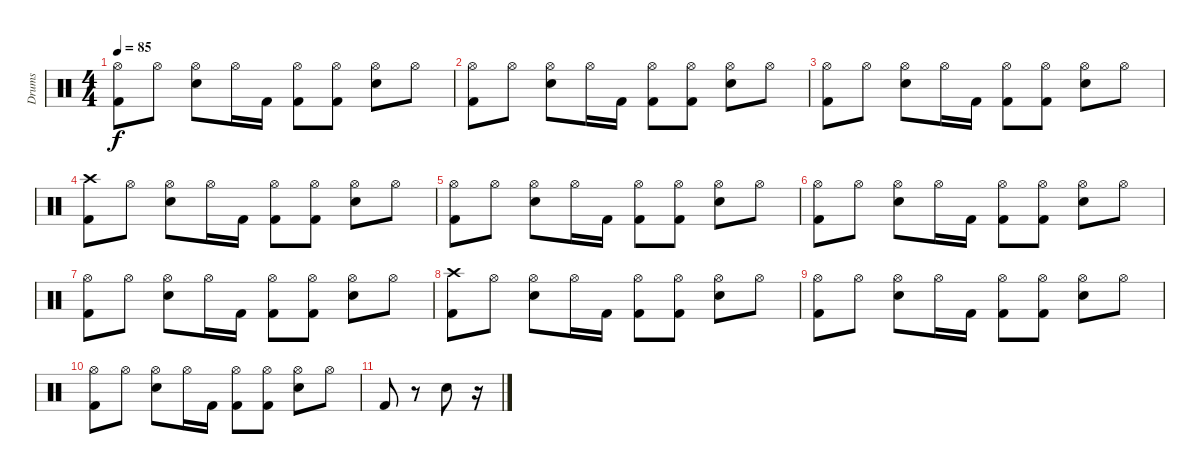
\track ("Drums" "Drums") {instrument percussion}
\staff {score}
\articulation defaults
\ts (4 4)
\tempo 85
\clef neutral
\ks c
("Hi-Hat (open)" "Kick (hit) 2").8{dy f} "Hi-Hat (open)".8 ("Hi-Hat (open)" "Snare (hit) 2").8 "Hi-Hat (open)".16 "Kick (hit) 2".16 ("Hi-Hat (open)" "Kick (hit) 2").8 ("Hi-Hat (open)" "Kick (hit) 2").8 ("Hi-Hat (open)" "Snare (hit) 2").8 "Hi-Hat (open)".8 |
("Hi-Hat (open)" "Kick (hit) 2").8 "Hi-Hat (open)".8 ("Hi-Hat (open)" "Snare (hit) 2").8 "Hi-Hat (open)".16 "Kick (hit) 2".16 ("Hi-Hat (open)" "Kick (hit) 2").8 ("Hi-Hat (open)" "Kick (hit) 2").8 ("Hi-Hat (open)" "Snare (hit) 2").8 "Hi-Hat (open)".8 |
("Hi-Hat (open)" "Kick (hit) 2").8 "Hi-Hat (open)".8 ("Hi-Hat (open)" "Snare (hit) 2").8 "Hi-Hat (open)".16 "Kick (hit) 2".16 ("Hi-Hat (open)" "Kick (hit) 2").8 ("Hi-Hat (open)" "Kick (hit) 2").8 ("Hi-Hat (open)" "Snare (hit) 2").8 "Hi-Hat (open)".8 |
("Crash high (hit)" "Kick (hit) 2").8 "Hi-Hat (open)".8 ("Hi-Hat (open)" "Snare (hit) 2").8 "Hi-Hat (open)".16 "Kick (hit) 2".16 ("Hi-Hat (open)" "Kick (hit) 2").8 ("Hi-Hat (open)" "Kick (hit) 2").8 ("Hi-Hat (open)" "Snare (hit) 2").8 "Hi-Hat (open)".8 |
("Hi-Hat (open)" "Kick (hit) 2").8 "Hi-Hat (open)".8 ("Hi-Hat (open)" "Snare (hit) 2").8 "Hi-Hat (open)".16 "Kick (hit) 2".16 ("Hi-Hat (open)" "Kick (hit) 2").8 ("Hi-Hat (open)" "Kick (hit) 2").8 ("Hi-Hat (open)" "Snare (hit) 2").8 "Hi-Hat (open)".8 |
("Hi-Hat (open)" "Kick (hit) 2").8 "Hi-Hat (open)".8 ("Hi-Hat (open)" "Snare (hit) 2").8 "Hi-Hat (open)".16 "Kick (hit) 2".16 ("Hi-Hat (open)" "Kick (hit) 2").8 ("Hi-Hat (open)" "Kick (hit) 2").8 ("Hi-Hat (open)" "Snare (hit) 2").8 "Hi-Hat (open)".8 |
("Hi-Hat (open)" "Kick (hit) 2").8 "Hi-Hat (open)".8 ("Hi-Hat (open)" "Snare (hit) 2").8 "Hi-Hat (open)".16 "Kick (hit) 2".16 ("Hi-Hat (open)" "Kick (hit) 2").8 ("Hi-Hat (open)" "Kick (hit) 2").8 ("Hi-Hat (open)" "Snare (hit) 2").8 "Hi-Hat (open)".8 |
("Crash high (hit)" "Kick (hit) 2").8 "Hi-Hat (open)".8 ("Hi-Hat (open)" "Snare (hit) 2").8 "Hi-Hat (open)".16 "Kick (hit) 2".16 ("Hi-Hat (open)" "Kick (hit) 2").8 ("Hi-Hat (open)" "Kick (hit) 2").8 ("Hi-Hat (open)" "Snare (hit) 2").8 "Hi-Hat (open)".8 |
("Hi-Hat (open)" "Kick (hit) 2").8 "Hi-Hat (open)".8 ("Hi-Hat (open)" "Snare (hit) 2").8 "Hi-Hat (open)".16 "Kick (hit) 2".16 ("Hi-Hat (open)" "Kick (hit) 2").8 ("Hi-Hat (open)" "Kick (hit) 2").8 ("Hi-Hat (open)" "Snare (hit) 2").8 "Hi-Hat (open)".8 |
("Hi-Hat (open)" "Kick (hit) 2").8 "Hi-Hat (open)".8 ("Hi-Hat (open)" "Snare (hit) 2").8 "Hi-Hat (open)".16 "Kick (hit) 2".16 ("Hi-Hat (open)" "Kick (hit) 2").8 ("Hi-Hat (open)" "Kick (hit) 2").8 ("Hi-Hat (open)" "Snare (hit) 2").8 "Hi-Hat (open)".8 |
"Kick (hit) 2".8 r.8 "Snare (hit) 2".8 r.16
